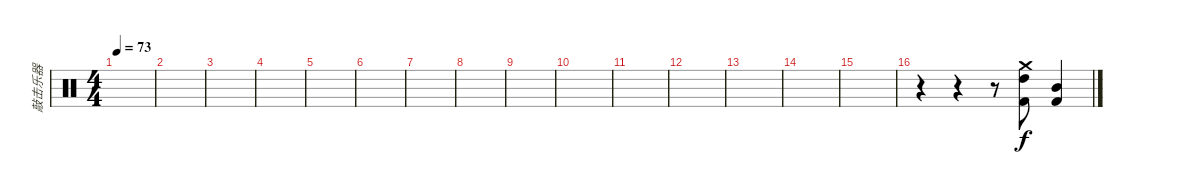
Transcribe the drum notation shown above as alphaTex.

\track ("敲击乐器" "敲击乐器") {instrument percussion}
\staff {score}
\articulation defaults
\ts (4 4)
\tempo 73
\clef neutral
\ks c
|
|
|
|
|
|
|
|
|
|
|
|
|
|
|
r.4 r.4 r.8 ("Crash medium (hit)" "High Tom (hit)" "Kick (hit) 2").8{volume 16} ("Mid Tom (hit)" "Kick (hit) 2").4{dy f}
